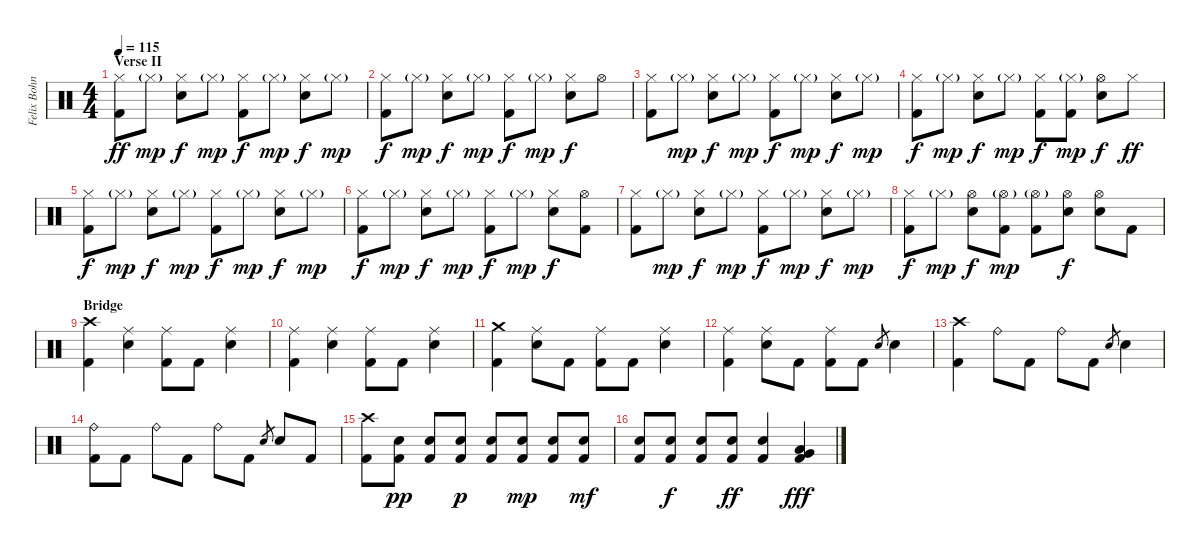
\track ("Felix Bohnke" "Felix Bohn") {instrument percussion}
\staff {score}
\articulation defaults
\ts (4 4)
\section ("" "Verse II")
\tempo 115
\clef neutral
\ks c
("Hi-Hat (closed)" "Kick (hit) 2").8{dy ff} "Hi-Hat (closed)"{g}.8{dy mp} ("Hi-Hat (closed)" "Electric Snare (hit)").8{dy f} "Hi-Hat (closed)"{g}.8{dy mp} ("Hi-Hat (closed)" "Kick (hit) 2").8{dy f} "Hi-Hat (closed)"{g}.8{dy mp} ("Hi-Hat (closed)" "Electric Snare (hit)").8{dy f} "Hi-Hat (closed)"{g}.8{dy mp} |
("Hi-Hat (closed)" "Kick (hit) 2").8{dy f} "Hi-Hat (closed)"{g}.8{dy mp} ("Hi-Hat (closed)" "Electric Snare (hit)").8{dy f} "Hi-Hat (closed)"{g}.8{dy mp} ("Hi-Hat (closed)" "Kick (hit) 2").8{dy f} "Hi-Hat (closed)"{g}.8{dy mp} ("Hi-Hat (closed)" "Electric Snare (hit)").8{dy f} "Hi-Hat (open)".8 |
("Hi-Hat (closed)" "Kick (hit) 2").8 "Hi-Hat (closed)"{g}.8{dy mp} ("Hi-Hat (closed)" "Electric Snare (hit)").8{dy f} "Hi-Hat (closed)"{g}.8{dy mp} ("Hi-Hat (closed)" "Kick (hit) 2").8{dy f} "Hi-Hat (closed)"{g}.8{dy mp} ("Hi-Hat (closed)" "Electric Snare (hit)").8{dy f} "Hi-Hat (closed)"{g}.8{dy mp} |
("Hi-Hat (closed)" "Kick (hit) 2").8{dy f} "Hi-Hat (closed)"{g}.8{dy mp} ("Hi-Hat (closed)" "Electric Snare (hit)").8{dy f} "Hi-Hat (closed)"{g}.8{dy mp} ("Hi-Hat (closed)" "Kick (hit) 2").8{dy f} ("Hi-Hat (closed)"{g} "Kick (hit) 2").8{dy mp} ("Hi-Hat (open)" "Electric Snare (hit)").8{dy f} "Hi-Hat (closed)".8{dy ff} |
("Hi-Hat (closed)" "Kick (hit) 2").8{dy f} "Hi-Hat (closed)"{g}.8{dy mp} ("Hi-Hat (closed)" "Electric Snare (hit)").8{dy f} "Hi-Hat (closed)"{g}.8{dy mp} ("Hi-Hat (closed)" "Kick (hit) 2").8{dy f} "Hi-Hat (closed)"{g}.8{dy mp} ("Hi-Hat (closed)" "Electric Snare (hit)").8{dy f} "Hi-Hat (closed)"{g}.8{dy mp} |
("Hi-Hat (closed)" "Kick (hit) 2").8{dy f} "Hi-Hat (closed)"{g}.8{dy mp} ("Hi-Hat (closed)" "Electric Snare (hit)").8{dy f} "Hi-Hat (closed)"{g}.8{dy mp} ("Hi-Hat (closed)" "Kick (hit) 2").8{dy f} "Hi-Hat (closed)"{g}.8{dy mp} ("Hi-Hat (closed)" "Electric Snare (hit)").8{dy f} ("Hi-Hat (open)" "Kick (hit) 2").8 |
("Hi-Hat (closed)" "Kick (hit) 2").8 "Hi-Hat (closed)"{g}.8{dy mp} ("Hi-Hat (closed)" "Electric Snare (hit)").8{dy f} "Hi-Hat (closed)"{g}.8{dy mp} ("Hi-Hat (closed)" "Kick (hit) 2").8{dy f} "Hi-Hat (closed)"{g}.8{dy mp} ("Hi-Hat (closed)" "Electric Snare (hit)").8{dy f} "Hi-Hat (closed)"{g}.8{dy mp} |
("Hi-Hat (closed)" "Kick (hit) 2").8{dy f} "Hi-Hat (closed)"{g}.8{dy mp} ("Hi-Hat (open)" "Electric Snare (hit)").8{dy f} ("Hi-Hat (open)"{g} "Kick (hit) 2").8{dy mp} ("Hi-Hat (open)"{g} "Kick (hit) 2").8 ("Hi-Hat (open)" "Electric Snare (hit)").8{dy f} ("Hi-Hat (open)" "Electric Snare (hit)").8 "Kick (hit) 2".8 |
\section ("" "Bridge")
("Crash high (hit)" "Kick (hit) 2").4 ("Ride (middle)" "Electric Snare (hit)").4 ("Ride (middle)" "Kick (hit) 2").8 "Kick (hit) 2".8 ("Ride (middle)" "Electric Snare (hit)").4 |
("Ride (middle)" "Kick (hit) 2").4 ("Ride (middle)" "Electric Snare (hit)").4 ("Ride (middle)" "Kick (hit) 2").8 "Kick (hit) 2".8 ("Ride (middle)" "Electric Snare (hit)").4 |
("Crash medium (hit)" "Kick (hit) 2").4 ("Ride (middle)" "Electric Snare (hit)").8 "Kick (hit) 2".8 ("Ride (middle)" "Kick (hit) 2").8 "Kick (hit) 2".8 ("Ride (middle)" "Electric Snare (hit)").4 |
("Ride (middle)" "Kick (hit) 2").4 ("Ride (middle)" "Electric Snare (hit)").8 "Kick (hit) 2".8 ("Ride (middle)" "Kick (hit) 2").8 "Kick (hit) 2".8 "Electric Snare (hit)".8{gr} "Electric Snare (hit)".4 |
("Crash high (hit)" "Kick (hit) 2").4 "Ride (bell)".8 "Kick (hit) 2".8 "Ride (bell)".8 "Kick (hit) 2".8 "Electric Snare (hit)".8{gr} "Electric Snare (hit)".4 |
("Ride (bell)" "Kick (hit) 2").8 "Kick (hit) 2".8 "Ride (bell)".8 "Kick (hit) 2".8 "Ride (bell)".8 "Kick (hit) 2".8 "Electric Snare (hit)".8{gr} "Electric Snare (hit)".8 "Kick (hit) 2".8 |
("Crash high (hit)" "Kick (hit) 2").8 ("Electric Snare (hit)" "Kick (hit) 2").8{dy pp} ("Electric Snare (hit)" "Kick (hit) 2").8 ("Electric Snare (hit)" "Kick (hit) 2").8{dy p} ("Electric Snare (hit)" "Kick (hit) 2").8 ("Electric Snare (hit)" "Kick (hit) 2").8{dy mp} ("Electric Snare (hit)" "Kick (hit) 2").8 ("Electric Snare (hit)" "Kick (hit) 2").8{dy mf} |
("Electric Snare (hit)" "Kick (hit) 2").8 ("Electric Snare (hit)" "Kick (hit) 2").8{dy f} ("Electric Snare (hit)" "Kick (hit) 2").8 ("Electric Snare (hit)" "Kick (hit) 2").8{dy ff} ("Electric Snare (hit)" "Kick (hit) 2").4 ("Very Low Tom (hit)" "Low Floor Tom (hit)" "Kick (hit) 2").4{dy fff}
